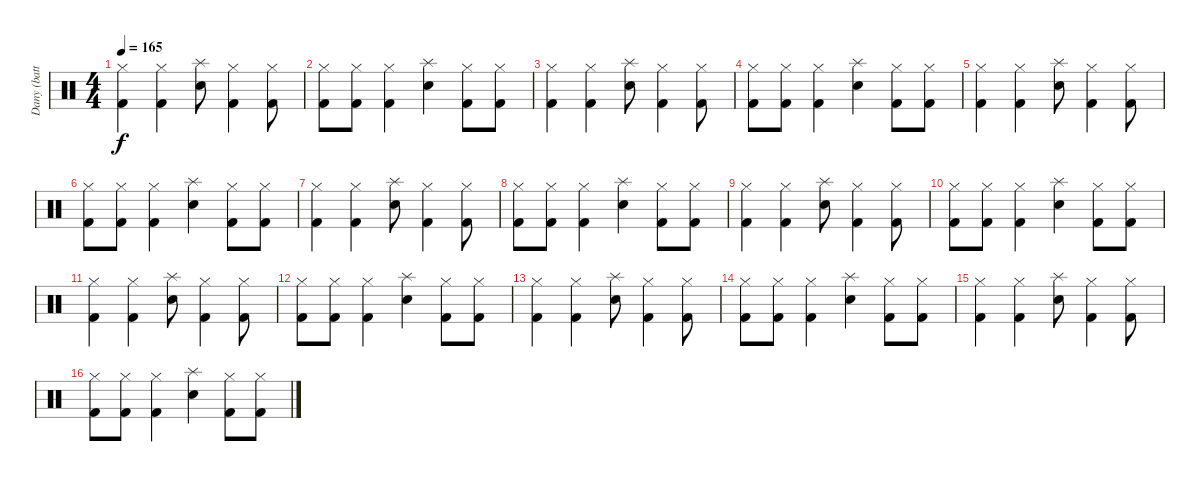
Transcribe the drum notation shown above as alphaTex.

\track ("Dany (batterie)" "Dany (batt") {instrument percussion}
\staff {score}
\articulation defaults
\ts (4 4)
\tempo 165
\clef neutral
\ks c
("Hi-Hat (closed)" "Kick (hit) 2").4{dy f} ("Hi-Hat (closed)" "Kick (hit) 2").4 ("Splash (hit)" "Snare (hit) 2").8 ("Hi-Hat (closed)" "Kick (hit) 2").4 ("Hi-Hat (closed)" "Kick (hit) 2").8 |
("Hi-Hat (closed)" "Kick (hit) 2").8 ("Hi-Hat (closed)" "Kick (hit) 2").8 ("Hi-Hat (closed)" "Kick (hit) 2").4 ("Splash (hit)" "Snare (hit) 2").4 ("Hi-Hat (closed)" "Kick (hit) 2").8 ("Hi-Hat (closed)" "Kick (hit) 2").8 |
("Hi-Hat (closed)" "Kick (hit) 2").4 ("Hi-Hat (closed)" "Kick (hit) 2").4 ("Splash (hit)" "Snare (hit) 2").8 ("Hi-Hat (closed)" "Kick (hit) 2").4 ("Hi-Hat (closed)" "Kick (hit) 2").8 |
("Hi-Hat (closed)" "Kick (hit) 2").8 ("Hi-Hat (closed)" "Kick (hit) 2").8 ("Hi-Hat (closed)" "Kick (hit) 2").4 ("Splash (hit)" "Snare (hit) 2").4 ("Hi-Hat (closed)" "Kick (hit) 2").8 ("Hi-Hat (closed)" "Kick (hit) 2").8 |
("Hi-Hat (closed)" "Kick (hit) 2").4 ("Hi-Hat (closed)" "Kick (hit) 2").4 ("Splash (hit)" "Snare (hit) 2").8 ("Hi-Hat (closed)" "Kick (hit) 2").4 ("Hi-Hat (closed)" "Kick (hit) 2").8 |
("Hi-Hat (closed)" "Kick (hit) 2").8 ("Hi-Hat (closed)" "Kick (hit) 2").8 ("Hi-Hat (closed)" "Kick (hit) 2").4 ("Splash (hit)" "Snare (hit) 2").4 ("Hi-Hat (closed)" "Kick (hit) 2").8 ("Hi-Hat (closed)" "Kick (hit) 2").8 |
("Hi-Hat (closed)" "Kick (hit) 2").4 ("Hi-Hat (closed)" "Kick (hit) 2").4 ("Splash (hit)" "Snare (hit) 2").8 ("Hi-Hat (closed)" "Kick (hit) 2").4 ("Hi-Hat (closed)" "Kick (hit) 2").8 |
("Hi-Hat (closed)" "Kick (hit) 2").8 ("Hi-Hat (closed)" "Kick (hit) 2").8 ("Hi-Hat (closed)" "Kick (hit) 2").4 ("Splash (hit)" "Snare (hit) 2").4 ("Hi-Hat (closed)" "Kick (hit) 2").8 ("Hi-Hat (closed)" "Kick (hit) 2").8 |
("Hi-Hat (closed)" "Kick (hit) 2").4 ("Hi-Hat (closed)" "Kick (hit) 2").4 ("Splash (hit)" "Snare (hit) 2").8 ("Hi-Hat (closed)" "Kick (hit) 2").4 ("Hi-Hat (closed)" "Kick (hit) 2").8 |
("Hi-Hat (closed)" "Kick (hit) 2").8 ("Hi-Hat (closed)" "Kick (hit) 2").8 ("Hi-Hat (closed)" "Kick (hit) 2").4 ("Splash (hit)" "Snare (hit) 2").4 ("Hi-Hat (closed)" "Kick (hit) 2").8 ("Hi-Hat (closed)" "Kick (hit) 2").8 |
("Hi-Hat (closed)" "Kick (hit) 2").4 ("Hi-Hat (closed)" "Kick (hit) 2").4 ("Splash (hit)" "Snare (hit) 2").8 ("Hi-Hat (closed)" "Kick (hit) 2").4 ("Hi-Hat (closed)" "Kick (hit) 2").8 |
("Hi-Hat (closed)" "Kick (hit) 2").8 ("Hi-Hat (closed)" "Kick (hit) 2").8 ("Hi-Hat (closed)" "Kick (hit) 2").4 ("Splash (hit)" "Snare (hit) 2").4 ("Hi-Hat (closed)" "Kick (hit) 2").8 ("Hi-Hat (closed)" "Kick (hit) 2").8 |
("Hi-Hat (closed)" "Kick (hit) 2").4 ("Hi-Hat (closed)" "Kick (hit) 2").4 ("Splash (hit)" "Snare (hit) 2").8 ("Hi-Hat (closed)" "Kick (hit) 2").4 ("Hi-Hat (closed)" "Kick (hit) 2").8 |
("Hi-Hat (closed)" "Kick (hit) 2").8 ("Hi-Hat (closed)" "Kick (hit) 2").8 ("Hi-Hat (closed)" "Kick (hit) 2").4 ("Splash (hit)" "Snare (hit) 2").4 ("Hi-Hat (closed)" "Kick (hit) 2").8 ("Hi-Hat (closed)" "Kick (hit) 2").8 |
("Hi-Hat (closed)" "Kick (hit) 2").4 ("Hi-Hat (closed)" "Kick (hit) 2").4 ("Splash (hit)" "Snare (hit) 2").8 ("Hi-Hat (closed)" "Kick (hit) 2").4 ("Hi-Hat (closed)" "Kick (hit) 2").8 |
("Hi-Hat (closed)" "Kick (hit) 2").8 ("Hi-Hat (closed)" "Kick (hit) 2").8 ("Hi-Hat (closed)" "Kick (hit) 2").4 ("Splash (hit)" "Snare (hit) 2").4 ("Hi-Hat (closed)" "Kick (hit) 2").8 ("Hi-Hat (closed)" "Kick (hit) 2").8
